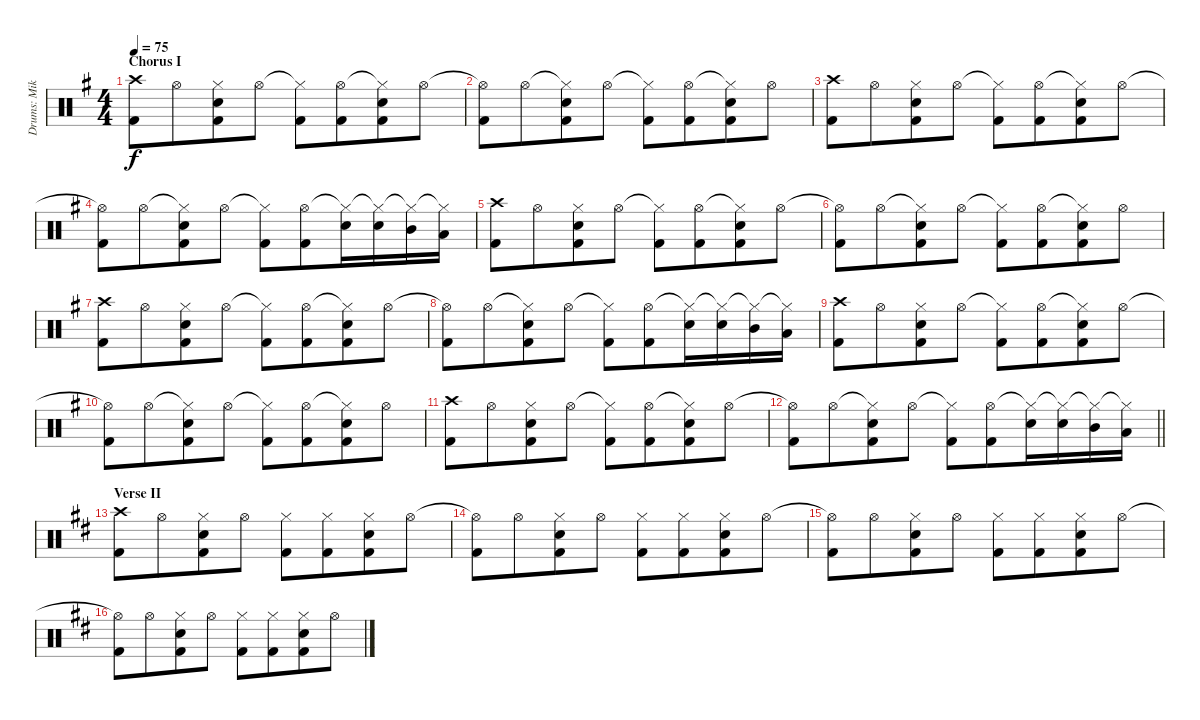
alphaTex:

\track ("Drums: Mike" "Drums: Mik") {instrument percussion}
\staff {score}
\articulation defaults
\ts (4 4)
\section ("" "Chorus I")
\tempo 75
\clef neutral
\ks g
("Crash high (hit)" "Kick (hit) 2").8{dy f} "Hi-Hat (open)".8{beam merge} ("Hi-Hat (closed)" "Electric Snare (hit)" "Kick (hit) 2").8 "Hi-Hat (open)".8 ("Hi-Hat (closed)"{t} "Kick (hit) 2").8 ("Hi-Hat (open)" "Kick (hit) 2").8{beam merge} ("Hi-Hat (closed)"{t} "Electric Snare (hit)" "Kick (hit) 2").8 "Hi-Hat (open)".8 |
("Hi-Hat (open)"{t} "Kick (hit) 2").8 "Hi-Hat (open)".8{beam merge} ("Hi-Hat (closed)"{t} "Electric Snare (hit)" "Kick (hit) 2").8 "Hi-Hat (open)".8 ("Hi-Hat (closed)"{t} "Kick (hit) 2").8 ("Hi-Hat (open)" "Kick (hit) 2").8{beam merge} ("Hi-Hat (closed)"{t} "Electric Snare (hit)" "Kick (hit) 2").8 "Hi-Hat (open)".8 |
("Crash high (hit)" "Kick (hit) 2").8 "Hi-Hat (open)".8{beam merge} ("Hi-Hat (closed)" "Electric Snare (hit)" "Kick (hit) 2").8 "Hi-Hat (open)".8 ("Hi-Hat (closed)"{t} "Kick (hit) 2").8 ("Hi-Hat (open)" "Kick (hit) 2").8{beam merge} ("Hi-Hat (closed)"{t} "Electric Snare (hit)" "Kick (hit) 2").8 "Hi-Hat (open)".8 |
("Hi-Hat (open)"{t} "Kick (hit) 2").8 "Hi-Hat (open)".8{beam merge} ("Hi-Hat (closed)"{t} "Electric Snare (hit)" "Kick (hit) 2").8 "Hi-Hat (open)".8 ("Hi-Hat (closed)"{t} "Kick (hit) 2").8 ("Hi-Hat (open)" "Kick (hit) 2").8{beam merge} ("Hi-Hat (closed)"{t} "Electric Snare (hit)").16{beam merge} ("Hi-Hat (closed)"{t} "Electric Snare (hit)").16{beam merge} ("Hi-Hat (closed)"{t} "Mid Tom (hit)").16{beam merge} ("Hi-Hat (closed)"{t} "Low Tom (hit)").16 |
("Crash high (hit)" "Kick (hit) 2").8 "Hi-Hat (open)".8{beam merge} ("Hi-Hat (closed)" "Electric Snare (hit)" "Kick (hit) 2").8 "Hi-Hat (open)".8 ("Hi-Hat (closed)"{t} "Kick (hit) 2").8 ("Hi-Hat (open)" "Kick (hit) 2").8{beam merge} ("Hi-Hat (closed)"{t} "Electric Snare (hit)" "Kick (hit) 2").8 "Hi-Hat (open)".8 |
("Hi-Hat (open)"{t} "Kick (hit) 2").8 "Hi-Hat (open)".8{beam merge} ("Hi-Hat (closed)"{t} "Electric Snare (hit)" "Kick (hit) 2").8 "Hi-Hat (open)".8 ("Hi-Hat (closed)"{t} "Kick (hit) 2").8 ("Hi-Hat (open)" "Kick (hit) 2").8{beam merge} ("Hi-Hat (closed)"{t} "Electric Snare (hit)" "Kick (hit) 2").8 "Hi-Hat (open)".8 |
("Crash high (hit)" "Kick (hit) 2").8 "Hi-Hat (open)".8{beam merge} ("Hi-Hat (closed)" "Electric Snare (hit)" "Kick (hit) 2").8 "Hi-Hat (open)".8 ("Hi-Hat (closed)"{t} "Kick (hit) 2").8 ("Hi-Hat (open)" "Kick (hit) 2").8{beam merge} ("Hi-Hat (closed)"{t} "Electric Snare (hit)" "Kick (hit) 2").8 "Hi-Hat (open)".8 |
("Hi-Hat (open)"{t} "Kick (hit) 2").8 "Hi-Hat (open)".8{beam merge} ("Hi-Hat (closed)"{t} "Electric Snare (hit)" "Kick (hit) 2").8 "Hi-Hat (open)".8 ("Hi-Hat (closed)"{t} "Kick (hit) 2").8 ("Hi-Hat (open)" "Kick (hit) 2").8{beam merge} ("Hi-Hat (closed)"{t} "Electric Snare (hit)").16{beam merge} ("Hi-Hat (closed)"{t} "Electric Snare (hit)").16{beam merge} ("Hi-Hat (closed)"{t} "Mid Tom (hit)").16{beam merge} ("Hi-Hat (closed)"{t} "Low Tom (hit)").16 |
("Crash high (hit)" "Kick (hit) 2").8 "Hi-Hat (open)".8{beam merge} ("Hi-Hat (closed)" "Electric Snare (hit)" "Kick (hit) 2").8 "Hi-Hat (open)".8 ("Hi-Hat (closed)"{t} "Kick (hit) 2").8 ("Hi-Hat (open)" "Kick (hit) 2").8{beam merge} ("Hi-Hat (closed)"{t} "Electric Snare (hit)" "Kick (hit) 2").8 "Hi-Hat (open)".8 |
("Hi-Hat (open)"{t} "Kick (hit) 2").8 "Hi-Hat (open)".8{beam merge} ("Hi-Hat (closed)"{t} "Electric Snare (hit)" "Kick (hit) 2").8 "Hi-Hat (open)".8 ("Hi-Hat (closed)"{t} "Kick (hit) 2").8 ("Hi-Hat (open)" "Kick (hit) 2").8{beam merge} ("Hi-Hat (closed)"{t} "Electric Snare (hit)" "Kick (hit) 2").8 "Hi-Hat (open)".8 |
("Crash high (hit)" "Kick (hit) 2").8 "Hi-Hat (open)".8{beam merge} ("Hi-Hat (closed)" "Electric Snare (hit)" "Kick (hit) 2").8 "Hi-Hat (open)".8 ("Hi-Hat (closed)"{t} "Kick (hit) 2").8 ("Hi-Hat (open)" "Kick (hit) 2").8{beam merge} ("Hi-Hat (closed)"{t} "Electric Snare (hit)" "Kick (hit) 2").8 "Hi-Hat (open)".8 |
\barLineRight lightlight
("Hi-Hat (open)"{t} "Kick (hit) 2").8 "Hi-Hat (open)".8{beam merge} ("Hi-Hat (closed)"{t} "Electric Snare (hit)" "Kick (hit) 2").8 "Hi-Hat (open)".8 ("Hi-Hat (closed)"{t} "Kick (hit) 2").8 ("Hi-Hat (open)" "Kick (hit) 2").8{beam merge} ("Hi-Hat (closed)"{t} "Electric Snare (hit)").16{beam merge} ("Hi-Hat (closed)"{t} "Electric Snare (hit)").16{beam merge} ("Hi-Hat (closed)"{t} "Mid Tom (hit)").16{beam merge} ("Hi-Hat (closed)"{t} "Low Tom (hit)").16 |
\section ("" "Verse II")
\ks d
("Crash high (hit)" "Kick (hit) 2").8 "Hi-Hat (open)".8{beam merge} ("Hi-Hat (closed)" "Electric Snare (hit)" "Kick (hit) 2").8 "Hi-Hat (open)".8 ("Hi-Hat (closed)" "Kick (hit) 2").8 ("Hi-Hat (closed)" "Kick (hit) 2").8{beam merge} ("Hi-Hat (closed)" "Electric Snare (hit)" "Kick (hit) 2").8 "Hi-Hat (open)".8 |
("Hi-Hat (open)"{t} "Kick (hit) 2").8 "Hi-Hat (open)".8{beam merge} ("Hi-Hat (closed)" "Electric Snare (hit)" "Kick (hit) 2").8 "Hi-Hat (open)".8 ("Hi-Hat (closed)" "Kick (hit) 2").8 ("Hi-Hat (closed)" "Kick (hit) 2").8{beam merge} ("Hi-Hat (closed)" "Electric Snare (hit)" "Kick (hit) 2").8 "Hi-Hat (open)".8 |
("Hi-Hat (open)"{t} "Kick (hit) 2").8 "Hi-Hat (open)".8{beam merge} ("Hi-Hat (closed)" "Electric Snare (hit)" "Kick (hit) 2").8 "Hi-Hat (open)".8 ("Hi-Hat (closed)" "Kick (hit) 2").8 ("Hi-Hat (closed)" "Kick (hit) 2").8{beam merge} ("Hi-Hat (closed)" "Electric Snare (hit)" "Kick (hit) 2").8 "Hi-Hat (open)".8 |
("Hi-Hat (open)"{t} "Kick (hit) 2").8 "Hi-Hat (open)".8{beam merge} ("Hi-Hat (closed)" "Electric Snare (hit)" "Kick (hit) 2").8 "Hi-Hat (open)".8 ("Hi-Hat (closed)" "Kick (hit) 2").8 ("Hi-Hat (closed)" "Kick (hit) 2").8{beam merge} ("Hi-Hat (closed)" "Electric Snare (hit)" "Kick (hit) 2").8 "Hi-Hat (open)".8
